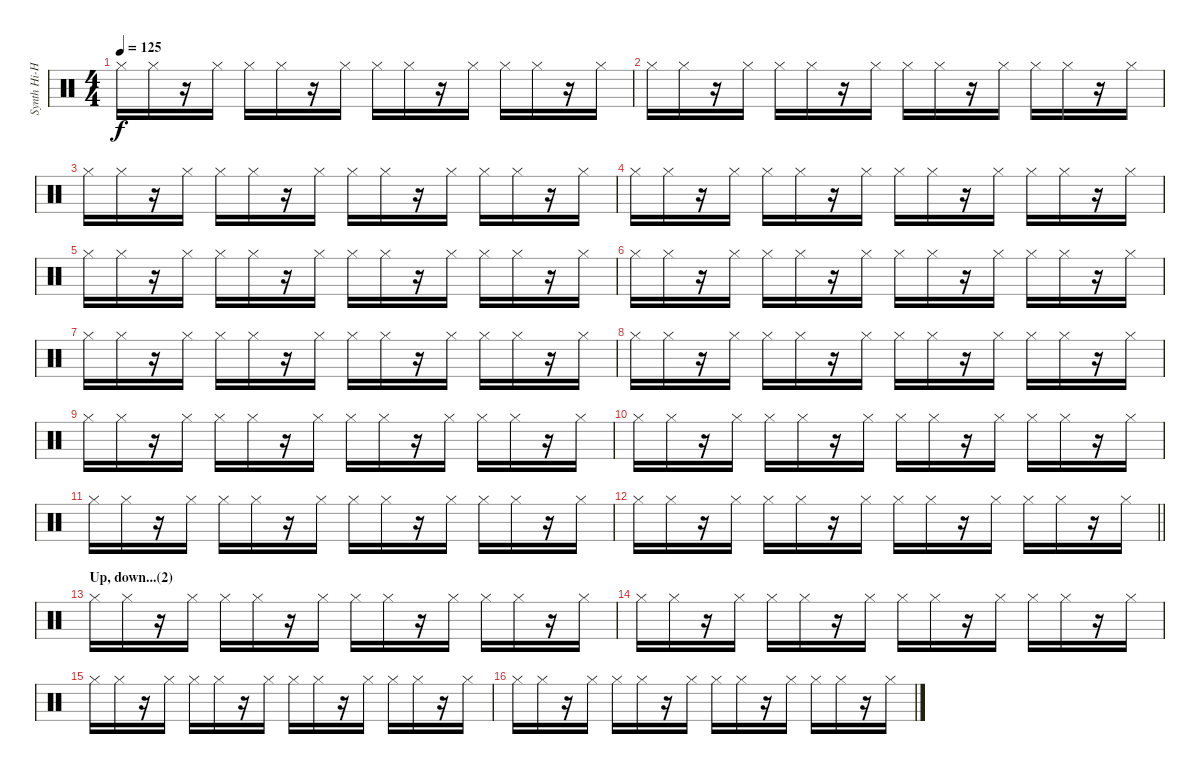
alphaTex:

\track ("Synth Hi-Hat (Gillian Gilbert)" "Synth Hi-H") {instrument percussion}
\staff {score}
\articulation defaults
\ts (4 4)
\tempo 125
\clef neutral
\ks c "Hi-Hat (closed)".16{dy f} "Hi-Hat (closed)".16
r.16 "Hi-Hat (closed)".16 "Hi-Hat (closed)".16 "Hi-Hat (closed)".16 r.16 "Hi-Hat (closed)".16 "Hi-Hat (closed)".16 "Hi-Hat (closed)".16 r.16 "Hi-Hat (closed)".16 "Hi-Hat (closed)".16 "Hi-Hat (closed)".16 r.16 "Hi-Hat (closed)".16 |
"Hi-Hat (closed)".16 "Hi-Hat (closed)".16 r.16 "Hi-Hat (closed)".16 "Hi-Hat (closed)".16 "Hi-Hat (closed)".16 r.16 "Hi-Hat (closed)".16 "Hi-Hat (closed)".16 "Hi-Hat (closed)".16 r.16 "Hi-Hat (closed)".16 "Hi-Hat (closed)".16 "Hi-Hat (closed)".16 r.16 "Hi-Hat (closed)".16 |
"Hi-Hat (closed)".16 "Hi-Hat (closed)".16 r.16 "Hi-Hat (closed)".16 "Hi-Hat (closed)".16 "Hi-Hat (closed)".16 r.16 "Hi-Hat (closed)".16 "Hi-Hat (closed)".16 "Hi-Hat (closed)".16 r.16 "Hi-Hat (closed)".16 "Hi-Hat (closed)".16 "Hi-Hat (closed)".16 r.16 "Hi-Hat (closed)".16 |
"Hi-Hat (closed)".16 "Hi-Hat (closed)".16 r.16 "Hi-Hat (closed)".16 "Hi-Hat (closed)".16 "Hi-Hat (closed)".16 r.16 "Hi-Hat (closed)".16 "Hi-Hat (closed)".16 "Hi-Hat (closed)".16 r.16 "Hi-Hat (closed)".16 "Hi-Hat (closed)".16 "Hi-Hat (closed)".16 r.16 "Hi-Hat (closed)".16 |
"Hi-Hat (closed)".16 "Hi-Hat (closed)".16 r.16 "Hi-Hat (closed)".16 "Hi-Hat (closed)".16 "Hi-Hat (closed)".16 r.16 "Hi-Hat (closed)".16 "Hi-Hat (closed)".16 "Hi-Hat (closed)".16 r.16 "Hi-Hat (closed)".16 "Hi-Hat (closed)".16 "Hi-Hat (closed)".16 r.16 "Hi-Hat (closed)".16 |
"Hi-Hat (closed)".16 "Hi-Hat (closed)".16 r.16 "Hi-Hat (closed)".16 "Hi-Hat (closed)".16 "Hi-Hat (closed)".16 r.16 "Hi-Hat (closed)".16 "Hi-Hat (closed)".16 "Hi-Hat (closed)".16 r.16 "Hi-Hat (closed)".16 "Hi-Hat (closed)".16 "Hi-Hat (closed)".16 r.16 "Hi-Hat (closed)".16 |
"Hi-Hat (closed)".16 "Hi-Hat (closed)".16 r.16 "Hi-Hat (closed)".16 "Hi-Hat (closed)".16 "Hi-Hat (closed)".16 r.16 "Hi-Hat (closed)".16 "Hi-Hat (closed)".16 "Hi-Hat (closed)".16 r.16 "Hi-Hat (closed)".16 "Hi-Hat (closed)".16 "Hi-Hat (closed)".16 r.16 "Hi-Hat (closed)".16 |
"Hi-Hat (closed)".16 "Hi-Hat (closed)".16 r.16 "Hi-Hat (closed)".16 "Hi-Hat (closed)".16 "Hi-Hat (closed)".16 r.16 "Hi-Hat (closed)".16 "Hi-Hat (closed)".16 "Hi-Hat (closed)".16 r.16 "Hi-Hat (closed)".16 "Hi-Hat (closed)".16 "Hi-Hat (closed)".16 r.16 "Hi-Hat (closed)".16 |
"Hi-Hat (closed)".16 "Hi-Hat (closed)".16 r.16 "Hi-Hat (closed)".16 "Hi-Hat (closed)".16 "Hi-Hat (closed)".16 r.16 "Hi-Hat (closed)".16 "Hi-Hat (closed)".16 "Hi-Hat (closed)".16 r.16 "Hi-Hat (closed)".16 "Hi-Hat (closed)".16 "Hi-Hat (closed)".16 r.16 "Hi-Hat (closed)".16 |
"Hi-Hat (closed)".16 "Hi-Hat (closed)".16 r.16 "Hi-Hat (closed)".16 "Hi-Hat (closed)".16 "Hi-Hat (closed)".16 r.16 "Hi-Hat (closed)".16 "Hi-Hat (closed)".16 "Hi-Hat (closed)".16 r.16 "Hi-Hat (closed)".16 "Hi-Hat (closed)".16 "Hi-Hat (closed)".16 r.16 "Hi-Hat (closed)".16 |
"Hi-Hat (closed)".16 "Hi-Hat (closed)".16 r.16 "Hi-Hat (closed)".16 "Hi-Hat (closed)".16 "Hi-Hat (closed)".16 r.16 "Hi-Hat (closed)".16 "Hi-Hat (closed)".16 "Hi-Hat (closed)".16 r.16 "Hi-Hat (closed)".16 "Hi-Hat (closed)".16 "Hi-Hat (closed)".16 r.16 "Hi-Hat (closed)".16 |
\barLineRight lightlight "Hi-Hat (closed)".16 "Hi-Hat (closed)".16
r.16 "Hi-Hat (closed)".16 "Hi-Hat (closed)".16 "Hi-Hat (closed)".16 r.16 "Hi-Hat (closed)".16 "Hi-Hat (closed)".16 "Hi-Hat (closed)".16 r.16 "Hi-Hat (closed)".16 "Hi-Hat (closed)".16 "Hi-Hat (closed)".16 r.16 "Hi-Hat (closed)".16 |
\section ("" "Up, down...(2)")
"Hi-Hat (closed)".16 "Hi-Hat (closed)".16 r.16 "Hi-Hat (closed)".16 "Hi-Hat (closed)".16 "Hi-Hat (closed)".16 r.16 "Hi-Hat (closed)".16 "Hi-Hat (closed)".16 "Hi-Hat (closed)".16 r.16 "Hi-Hat (closed)".16 "Hi-Hat (closed)".16 "Hi-Hat (closed)".16 r.16 "Hi-Hat (closed)".16 |
"Hi-Hat (closed)".16 "Hi-Hat (closed)".16 r.16 "Hi-Hat (closed)".16 "Hi-Hat (closed)".16 "Hi-Hat (closed)".16 r.16 "Hi-Hat (closed)".16 "Hi-Hat (closed)".16 "Hi-Hat (closed)".16 r.16 "Hi-Hat (closed)".16 "Hi-Hat (closed)".16 "Hi-Hat (closed)".16 r.16 "Hi-Hat (closed)".16 |
"Hi-Hat (closed)".16 "Hi-Hat (closed)".16 r.16 "Hi-Hat (closed)".16 "Hi-Hat (closed)".16 "Hi-Hat (closed)".16 r.16 "Hi-Hat (closed)".16 "Hi-Hat (closed)".16 "Hi-Hat (closed)".16 r.16 "Hi-Hat (closed)".16 "Hi-Hat (closed)".16 "Hi-Hat (closed)".16 r.16 "Hi-Hat (closed)".16 |
"Hi-Hat (closed)".16 "Hi-Hat (closed)".16 r.16 "Hi-Hat (closed)".16 "Hi-Hat (closed)".16 "Hi-Hat (closed)".16 r.16 "Hi-Hat (closed)".16 "Hi-Hat (closed)".16 "Hi-Hat (closed)".16 r.16 "Hi-Hat (closed)".16 "Hi-Hat (closed)".16 "Hi-Hat (closed)".16 r.16 "Hi-Hat (closed)".16
